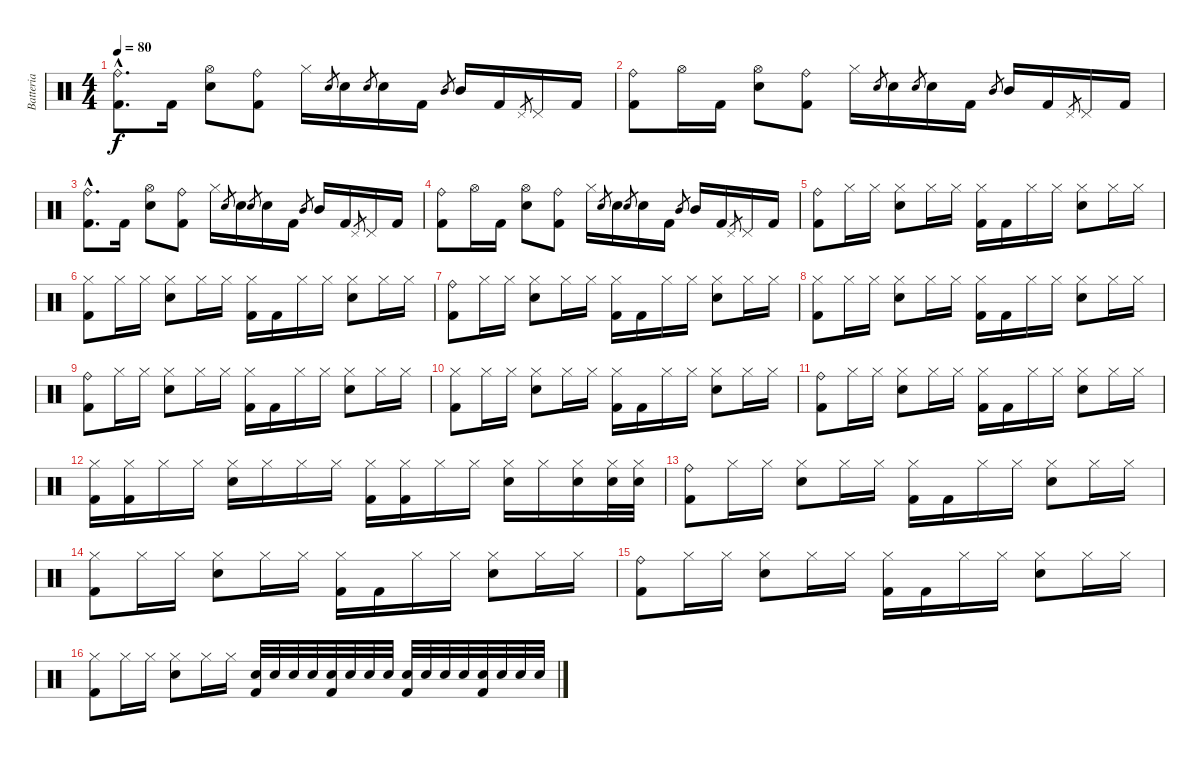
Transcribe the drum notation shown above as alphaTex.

\track ("Batteria" "Batteria") {instrument percussion}
\staff {score}
\articulation defaults
\ts (4 4)
\tempo 80
\clef neutral
\ks c
("Ride (bell)"{hac} "Kick (hit) 2"{hac}).8{d dy f} "Kick (hit) 2".16 ("Hi-Hat (open)" "Snare (hit) 2").8 ("Ride (bell)" "Kick (hit) 2").8 "Hi-Hat (closed)".16 "Snare (hit) 2".8{gr} "Snare (hit) 2".16 "Snare (hit) 2".8{gr} "Snare (hit) 2".16 "Kick (hit) 2".16 "Mid Tom (hit)".8{gr} "Mid Tom (hit)".16 "Kick (hit) 2".16 "Pedal Hi-Hat (hit)".8{gr} "Pedal Hi-Hat (hit)".16 "Kick (hit) 2".16 |
("Ride (bell)" "Kick (hit) 2").8 "Hi-Hat (open)".16 "Kick (hit) 2".16 ("Hi-Hat (open)" "Snare (hit) 2").8 ("Ride (bell)" "Kick (hit) 2").8 "Hi-Hat (closed)".16 "Snare (hit) 2".8{gr} "Snare (hit) 2".16 "Snare (hit) 2".8{gr} "Snare (hit) 2".16 "Kick (hit) 2".16 "Mid Tom (hit)".8{gr} "Mid Tom (hit)".16 "Kick (hit) 2".16 "Pedal Hi-Hat (hit)".8{gr} "Pedal Hi-Hat (hit)".16 "Kick (hit) 2".16 |
("Ride (bell)"{hac} "Kick (hit) 2"{hac}).8{d} "Kick (hit) 2".16 ("Hi-Hat (open)" "Snare (hit) 2").8 ("Ride (bell)" "Kick (hit) 2").8 "Hi-Hat (closed)".16 "Snare (hit) 2".8{gr} "Snare (hit) 2".16 "Snare (hit) 2".8{gr} "Snare (hit) 2".16 "Kick (hit) 2".16 "Mid Tom (hit)".8{gr} "Mid Tom (hit)".16 "Kick (hit) 2".16 "Pedal Hi-Hat (hit)".8{gr} "Pedal Hi-Hat (hit)".16 "Kick (hit) 2".16 |
("Ride (bell)" "Kick (hit) 2").8 "Hi-Hat (open)".16 "Kick (hit) 2".16 ("Hi-Hat (open)" "Snare (hit) 2").8 ("Ride (bell)" "Kick (hit) 2").8 "Hi-Hat (closed)".16 "Snare (hit) 2".8{gr} "Snare (hit) 2".16 "Snare (hit) 2".8{gr} "Snare (hit) 2".16 "Kick (hit) 2".16 "Mid Tom (hit)".8{gr} "Mid Tom (hit)".16 "Kick (hit) 2".16 "Pedal Hi-Hat (hit)".8{gr} "Pedal Hi-Hat (hit)".16 "Kick (hit) 2".16 |
("Ride (bell)" "Kick (hit) 2").8 "Hi-Hat (closed)".16 "Hi-Hat (closed)".16 ("Hi-Hat (closed)" "Snare (hit) 2").8 "Hi-Hat (closed)".16 "Hi-Hat (closed)".16 ("Hi-Hat (closed)" "Kick (hit) 2").16 "Kick (hit) 2".16 "Hi-Hat (closed)".16 "Hi-Hat (closed)".16 ("Hi-Hat (closed)" "Snare (hit) 2").8 "Hi-Hat (closed)".16 "Hi-Hat (closed)".16 |
("Hi-Hat (closed)" "Kick (hit) 2").8 "Hi-Hat (closed)".16 "Hi-Hat (closed)".16 ("Hi-Hat (closed)" "Snare (hit) 2").8 "Hi-Hat (closed)".16 "Hi-Hat (closed)".16 ("Hi-Hat (closed)" "Kick (hit) 2").16 "Kick (hit) 2".16 "Hi-Hat (closed)".16 "Hi-Hat (closed)".16 ("Hi-Hat (closed)" "Snare (hit) 2").8 "Hi-Hat (closed)".16 "Hi-Hat (closed)".16 |
("Ride (bell)" "Kick (hit) 2").8 "Hi-Hat (closed)".16 "Hi-Hat (closed)".16 ("Hi-Hat (closed)" "Snare (hit) 2").8 "Hi-Hat (closed)".16 "Hi-Hat (closed)".16 ("Hi-Hat (closed)" "Kick (hit) 2").16 "Kick (hit) 2".16 "Hi-Hat (closed)".16 "Hi-Hat (closed)".16 ("Hi-Hat (closed)" "Snare (hit) 2").8 "Hi-Hat (closed)".16 "Hi-Hat (closed)".16 |
("Hi-Hat (closed)" "Kick (hit) 2").8 "Hi-Hat (closed)".16 "Hi-Hat (closed)".16 ("Hi-Hat (closed)" "Snare (hit) 2").8 "Hi-Hat (closed)".16 "Hi-Hat (closed)".16 ("Hi-Hat (closed)" "Kick (hit) 2").16 "Kick (hit) 2".16 "Hi-Hat (closed)".16 "Hi-Hat (closed)".16 ("Hi-Hat (closed)" "Snare (hit) 2").8 "Hi-Hat (closed)".16 "Hi-Hat (closed)".16 |
("Ride (bell)" "Kick (hit) 2").8 "Hi-Hat (closed)".16 "Hi-Hat (closed)".16 ("Hi-Hat (closed)" "Snare (hit) 2").8 "Hi-Hat (closed)".16 "Hi-Hat (closed)".16 ("Hi-Hat (closed)" "Kick (hit) 2").16 "Kick (hit) 2".16 "Hi-Hat (closed)".16 "Hi-Hat (closed)".16 ("Hi-Hat (closed)" "Snare (hit) 2").8 "Hi-Hat (closed)".16 "Hi-Hat (closed)".16 |
("Hi-Hat (closed)" "Kick (hit) 2").8 "Hi-Hat (closed)".16 "Hi-Hat (closed)".16 ("Hi-Hat (closed)" "Snare (hit) 2").8 "Hi-Hat (closed)".16 "Hi-Hat (closed)".16 ("Hi-Hat (closed)" "Kick (hit) 2").16 "Kick (hit) 2".16 "Hi-Hat (closed)".16 "Hi-Hat (closed)".16 ("Hi-Hat (closed)" "Snare (hit) 2").8 "Hi-Hat (closed)".16 "Hi-Hat (closed)".16 |
("Ride (bell)" "Kick (hit) 2").8 "Hi-Hat (closed)".16 "Hi-Hat (closed)".16 ("Hi-Hat (closed)" "Snare (hit) 2").8 "Hi-Hat (closed)".16 "Hi-Hat (closed)".16 ("Hi-Hat (closed)" "Kick (hit) 2").16 "Kick (hit) 2".16 "Hi-Hat (closed)".16 "Hi-Hat (closed)".16 ("Hi-Hat (closed)" "Snare (hit) 2").8 "Hi-Hat (closed)".16 "Hi-Hat (closed)".16 |
("Hi-Hat (closed)" "Kick (hit) 2").16 ("Hi-Hat (closed)" "Kick (hit) 2").16 "Hi-Hat (closed)".16 "Hi-Hat (closed)".16 ("Hi-Hat (closed)" "Snare (hit) 2").16 "Hi-Hat (closed)".16 "Hi-Hat (closed)".16 "Hi-Hat (closed)".16 ("Hi-Hat (closed)" "Kick (hit) 2").16 ("Hi-Hat (closed)" "Kick (hit) 2").16 "Hi-Hat (closed)".16 "Hi-Hat (closed)".16 ("Hi-Hat (closed)" "Snare (hit) 2").16 "Hi-Hat (closed)".16 ("Hi-Hat (closed)" "Snare (hit) 2").16 ("Hi-Hat (closed)" "Snare (hit) 2").32 ("Hi-Hat (closed)" "Snare (hit) 2").32 |
("Ride (bell)" "Kick (hit) 2").8 "Hi-Hat (closed)".16 "Hi-Hat (closed)".16 ("Hi-Hat (closed)" "Snare (hit) 2").8 "Hi-Hat (closed)".16 "Hi-Hat (closed)".16 ("Hi-Hat (closed)" "Kick (hit) 2").16 "Kick (hit) 2".16 "Hi-Hat (closed)".16 "Hi-Hat (closed)".16 ("Hi-Hat (closed)" "Snare (hit) 2").8 "Hi-Hat (closed)".16 "Hi-Hat (closed)".16 |
("Hi-Hat (closed)" "Kick (hit) 2").8 "Hi-Hat (closed)".16 "Hi-Hat (closed)".16 ("Hi-Hat (closed)" "Snare (hit) 2").8 "Hi-Hat (closed)".16 "Hi-Hat (closed)".16 ("Hi-Hat (closed)" "Kick (hit) 2").16 "Kick (hit) 2".16 "Hi-Hat (closed)".16 "Hi-Hat (closed)".16 ("Hi-Hat (closed)" "Snare (hit) 2").8 "Hi-Hat (closed)".16 "Hi-Hat (closed)".16 |
("Ride (bell)" "Kick (hit) 2").8 "Hi-Hat (closed)".16 "Hi-Hat (closed)".16 ("Hi-Hat (closed)" "Snare (hit) 2").8 "Hi-Hat (closed)".16 "Hi-Hat (closed)".16 ("Hi-Hat (closed)" "Kick (hit) 2").16 "Kick (hit) 2".16 "Hi-Hat (closed)".16 "Hi-Hat (closed)".16 ("Hi-Hat (closed)" "Snare (hit) 2").8 "Hi-Hat (closed)".16 "Hi-Hat (closed)".16 |
("Hi-Hat (closed)" "Kick (hit) 2").8 "Hi-Hat (closed)".16 "Hi-Hat (closed)".16 ("Hi-Hat (closed)" "Snare (hit) 2").8 "Hi-Hat (closed)".16 "Hi-Hat (closed)".16 ("Snare (hit) 2" "Kick (hit) 2").32 "Snare (hit) 2".32 "Snare (hit) 2".32 "Snare (hit) 2".32 ("Snare (hit) 2" "Kick (hit) 2").32 "Snare (hit) 2".32 "Snare (hit) 2".32 "Snare (hit) 2".32 ("Snare (hit) 2" "Kick (hit) 2").32 "Snare (hit) 2".32 "Snare (hit) 2".32 "Snare (hit) 2".32 ("Snare (hit) 2" "Kick (hit) 2").32 "Snare (hit) 2".32 "Snare (hit) 2".32 "Snare (hit) 2".32
